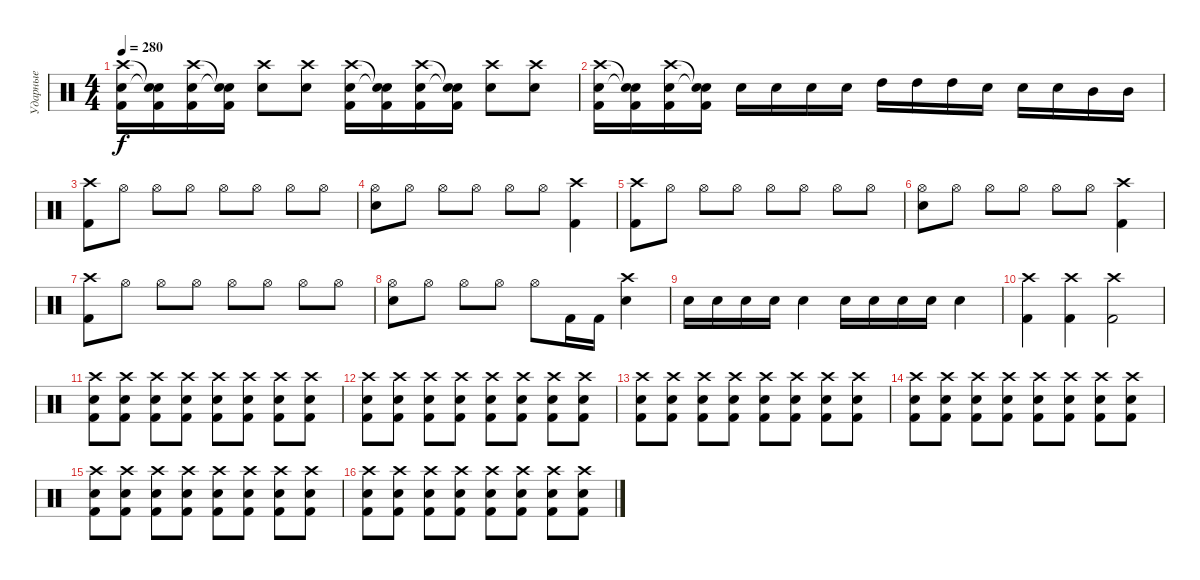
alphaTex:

\track ("Ударные" "Ударные") {instrument percussion}
\staff {score}
\articulation defaults
\ts (4 4)
\tempo 280
\clef neutral
\ks c
("Crash high (hit)" "Electric Snare (hit)" "Kick (hit) 2").16{dy f} ("Snare (hit)"{t} "Snare (hit)"{t} "Kick (hit) 2").16 ("Crash high (hit)" "Electric Snare (hit)" "Kick (hit) 2").16 ("Snare (hit)"{t} "Snare (hit)"{t} "Kick (hit) 2").16 ("Crash high (hit)" "Electric Snare (hit)").8 ("Crash high (hit)" "Electric Snare (hit)").8 ("Crash high (hit)" "Electric Snare (hit)" "Kick (hit) 2").16 ("Snare (hit)"{t} "Snare (hit)"{t} "Kick (hit) 2").16 ("Crash high (hit)" "Electric Snare (hit)" "Kick (hit) 2").16 ("Snare (hit)"{t} "Snare (hit)"{t} "Kick (hit) 2").16 ("Crash high (hit)" "Electric Snare (hit)").8 ("Crash high (hit)" "Electric Snare (hit)").8 |
("Crash high (hit)" "Electric Snare (hit)" "Kick (hit) 2").16 ("Snare (hit)"{t} "Snare (hit)"{t} "Kick (hit) 2").16 ("Crash high (hit)" "Electric Snare (hit)" "Kick (hit) 2").16 ("Snare (hit)"{t} "Snare (hit)"{t} "Kick (hit) 2").16 "Electric Snare (hit)".16 "Electric Snare (hit)".16 "Electric Snare (hit)".16 "Electric Snare (hit)".16 "High Tom (hit)".16 "High Tom (hit)".16 "High Tom (hit)".16 "Electric Snare (hit)".16 "Electric Snare (hit)".16 "Electric Snare (hit)".16 "Mid Tom (hit)".16 "Mid Tom (hit)".16 |
("Crash high (hit)" "Kick (hit) 2").8 "Hi-Hat (open)".8 "Hi-Hat (open)".8 "Hi-Hat (open)".8 "Hi-Hat (open)".8 "Hi-Hat (open)".8 "Hi-Hat (open)".8 "Hi-Hat (open)".8 |
("Hi-Hat (open)" "Electric Snare (hit)").8 "Hi-Hat (open)".8 "Hi-Hat (open)".8 "Hi-Hat (open)".8 "Hi-Hat (open)".8 "Hi-Hat (open)".8 ("Crash high (hit)" "Kick (hit) 2").4 |
("Crash high (hit)" "Kick (hit) 2").8 "Hi-Hat (open)".8 "Hi-Hat (open)".8 "Hi-Hat (open)".8 "Hi-Hat (open)".8 "Hi-Hat (open)".8 "Hi-Hat (open)".8 "Hi-Hat (open)".8 |
("Hi-Hat (open)" "Electric Snare (hit)").8 "Hi-Hat (open)".8 "Hi-Hat (open)".8 "Hi-Hat (open)".8 "Hi-Hat (open)".8 "Hi-Hat (open)".8 ("Crash high (hit)" "Kick (hit) 2").4 |
("Crash high (hit)" "Kick (hit) 2").8 "Hi-Hat (open)".8 "Hi-Hat (open)".8 "Hi-Hat (open)".8 "Hi-Hat (open)".8 "Hi-Hat (open)".8 "Hi-Hat (open)".8 "Hi-Hat (open)".8 |
("Hi-Hat (open)" "Electric Snare (hit)").8 "Hi-Hat (open)".8 "Hi-Hat (open)".8 "Hi-Hat (open)".8 "Hi-Hat (open)".8 "Kick (hit) 2".16 "Kick (hit) 2".16 ("Crash high (hit)" "Electric Snare (hit)").4 |
"Electric Snare (hit)".16 "Electric Snare (hit)".16 "Electric Snare (hit)".16 "Electric Snare (hit)".16 "Electric Snare (hit)".4 "Electric Snare (hit)".16 "Electric Snare (hit)".16 "Electric Snare (hit)".16 "Electric Snare (hit)".16 "Electric Snare (hit)".4 |
("Crash high (hit)" "Kick (hit) 2").4 ("Crash high (hit)" "Kick (hit) 2").4 ("Crash high (hit)" "Kick (hit) 2").2 |
("Crash high (hit)" "Electric Snare (hit)" "Kick (hit) 2").8 ("Crash high (hit)" "Electric Snare (hit)" "Kick (hit) 2").8 ("Crash high (hit)" "Electric Snare (hit)" "Kick (hit) 2").8 ("Crash high (hit)" "Electric Snare (hit)" "Kick (hit) 2").8 ("Crash high (hit)" "Electric Snare (hit)" "Kick (hit) 2").8 ("Crash high (hit)" "Electric Snare (hit)" "Kick (hit) 2").8 ("Crash high (hit)" "Electric Snare (hit)" "Kick (hit) 2").8 ("Crash high (hit)" "Electric Snare (hit)" "Kick (hit) 2").8 |
("Crash high (hit)" "Electric Snare (hit)" "Kick (hit) 2").8 ("Crash high (hit)" "Electric Snare (hit)" "Kick (hit) 2").8 ("Crash high (hit)" "Electric Snare (hit)" "Kick (hit) 2").8 ("Crash high (hit)" "Electric Snare (hit)" "Kick (hit) 2").8 ("Crash high (hit)" "Electric Snare (hit)" "Kick (hit) 2").8 ("Crash high (hit)" "Electric Snare (hit)" "Kick (hit) 2").8 ("Crash high (hit)" "Electric Snare (hit)" "Kick (hit) 2").8 ("Crash high (hit)" "Electric Snare (hit)" "Kick (hit) 2").8 |
("Crash high (hit)" "Electric Snare (hit)" "Kick (hit) 2").8 ("Crash high (hit)" "Electric Snare (hit)" "Kick (hit) 2").8 ("Crash high (hit)" "Electric Snare (hit)" "Kick (hit) 2").8 ("Crash high (hit)" "Electric Snare (hit)" "Kick (hit) 2").8 ("Crash high (hit)" "Electric Snare (hit)" "Kick (hit) 2").8 ("Crash high (hit)" "Electric Snare (hit)" "Kick (hit) 2").8 ("Crash high (hit)" "Electric Snare (hit)" "Kick (hit) 2").8 ("Crash high (hit)" "Electric Snare (hit)" "Kick (hit) 2").8 |
("Crash high (hit)" "Electric Snare (hit)" "Kick (hit) 2").8 ("Crash high (hit)" "Electric Snare (hit)" "Kick (hit) 2").8 ("Crash high (hit)" "Electric Snare (hit)" "Kick (hit) 2").8 ("Crash high (hit)" "Electric Snare (hit)" "Kick (hit) 2").8 ("Crash high (hit)" "Electric Snare (hit)" "Kick (hit) 2").8 ("Crash high (hit)" "Electric Snare (hit)" "Kick (hit) 2").8 ("Crash high (hit)" "Electric Snare (hit)" "Kick (hit) 2").8 ("Crash high (hit)" "Electric Snare (hit)" "Kick (hit) 2").8 |
("Crash high (hit)" "Electric Snare (hit)" "Kick (hit) 2").8 ("Crash high (hit)" "Electric Snare (hit)" "Kick (hit) 2").8 ("Crash high (hit)" "Electric Snare (hit)" "Kick (hit) 2").8 ("Crash high (hit)" "Electric Snare (hit)" "Kick (hit) 2").8 ("Crash high (hit)" "Electric Snare (hit)" "Kick (hit) 2").8 ("Crash high (hit)" "Electric Snare (hit)" "Kick (hit) 2").8 ("Crash high (hit)" "Electric Snare (hit)" "Kick (hit) 2").8 ("Crash high (hit)" "Electric Snare (hit)" "Kick (hit) 2").8 |
("Crash high (hit)" "Electric Snare (hit)" "Kick (hit) 2").8 ("Crash high (hit)" "Electric Snare (hit)" "Kick (hit) 2").8 ("Crash high (hit)" "Electric Snare (hit)" "Kick (hit) 2").8 ("Crash high (hit)" "Electric Snare (hit)" "Kick (hit) 2").8 ("Crash high (hit)" "Electric Snare (hit)" "Kick (hit) 2").8 ("Crash high (hit)" "Electric Snare (hit)" "Kick (hit) 2").8 ("Crash high (hit)" "Electric Snare (hit)" "Kick (hit) 2").8 ("Crash high (hit)" "Electric Snare (hit)" "Kick (hit) 2").8
